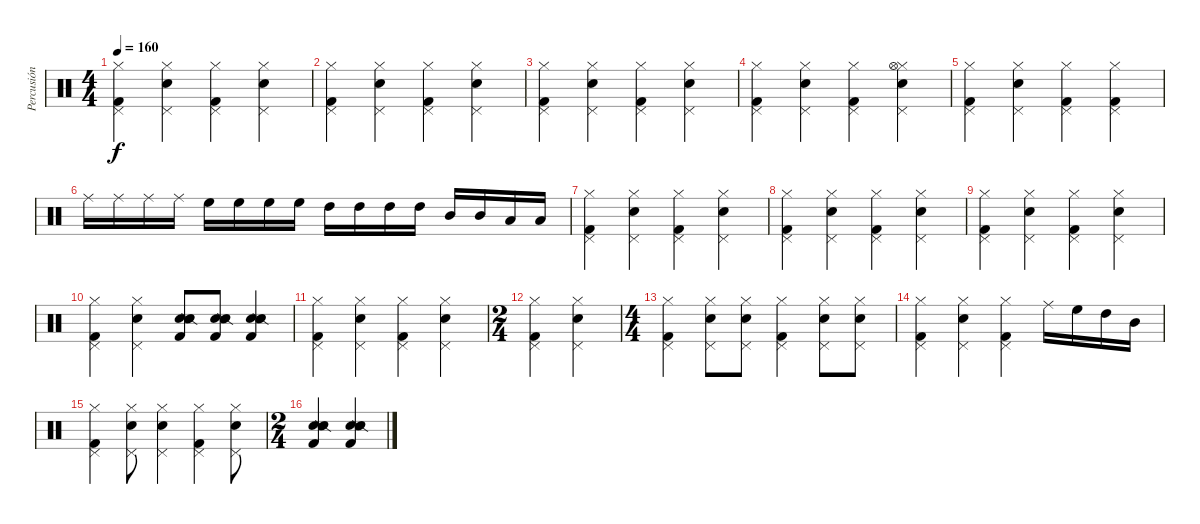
\track ("Percusión" "Percusión") {instrument percussion}
\staff {score}
\articulation defaults
\ts (4 4)
\tempo 160
\clef neutral
\ks c
("Hi-Hat (closed)" "Kick (hit) 2" "Pedal Hi-Hat (hit)").4{dy f} ("Hi-Hat (closed)" "Snare (hit) 2" "Pedal Hi-Hat (hit)").4 ("Hi-Hat (closed)" "Kick (hit) 2" "Pedal Hi-Hat (hit)").4 ("Hi-Hat (closed)" "Snare (hit) 2" "Pedal Hi-Hat (hit)").4 |
("Hi-Hat (closed)" "Kick (hit) 2" "Pedal Hi-Hat (hit)").4 ("Hi-Hat (closed)" "Snare (hit) 2" "Pedal Hi-Hat (hit)").4 ("Hi-Hat (closed)" "Kick (hit) 2" "Pedal Hi-Hat (hit)").4 ("Hi-Hat (closed)" "Snare (hit) 2" "Pedal Hi-Hat (hit)").4 |
("Hi-Hat (closed)" "Kick (hit) 2" "Pedal Hi-Hat (hit)").4 ("Hi-Hat (closed)" "Snare (hit) 2" "Pedal Hi-Hat (hit)").4 ("Hi-Hat (closed)" "Kick (hit) 2" "Pedal Hi-Hat (hit)").4 ("Hi-Hat (closed)" "Snare (hit) 2" "Pedal Hi-Hat (hit)").4 |
("Hi-Hat (closed)" "Kick (hit) 2" "Pedal Hi-Hat (hit)").4 ("Hi-Hat (closed)" "Snare (hit) 2" "Pedal Hi-Hat (hit)").4 ("Hi-Hat (closed)" "Kick (hit) 2" "Pedal Hi-Hat (hit)").4 ("Hi-Hat (closed)" "Snare (hit) 2" "Pedal Hi-Hat (hit)" "Hi-Hat (open)").4 |
("Hi-Hat (closed)" "Kick (hit) 2" "Pedal Hi-Hat (hit)").4 ("Hi-Hat (closed)" "Snare (hit) 2" "Pedal Hi-Hat (hit)").4 ("Hi-Hat (closed)" "Kick (hit) 2" "Pedal Hi-Hat (hit)").4 ("Hi-Hat (closed)" "Kick (hit) 2" "Pedal Hi-Hat (hit)").4 |
"Ride (middle)".16 "Ride (middle)".16 "Ride (middle)".16 "Ride (middle)".16 "High Floor Tom (hit)".16 "High Floor Tom (hit)".16 "High Floor Tom (hit)".16 "High Floor Tom (hit)".16 "High Tom (hit)".16 "High Tom (hit)".16 "High Tom (hit)".16 "High Tom (hit)".16 "Mid Tom (hit)".16 "Mid Tom (hit)".16 "Low Tom (hit)".16 "Low Tom (hit)".16 |
("Hi-Hat (closed)" "Kick (hit) 2" "Pedal Hi-Hat (hit)").4 ("Hi-Hat (closed)" "Snare (hit) 2" "Pedal Hi-Hat (hit)").4 ("Hi-Hat (closed)" "Kick (hit) 2" "Pedal Hi-Hat (hit)").4 ("Hi-Hat (closed)" "Snare (hit) 2" "Pedal Hi-Hat (hit)").4 |
("Hi-Hat (closed)" "Kick (hit) 2" "Pedal Hi-Hat (hit)").4 ("Hi-Hat (closed)" "Snare (hit) 2" "Pedal Hi-Hat (hit)").4 ("Hi-Hat (closed)" "Kick (hit) 2" "Pedal Hi-Hat (hit)").4 ("Hi-Hat (closed)" "Snare (hit) 2" "Pedal Hi-Hat (hit)").4 |
("Hi-Hat (closed)" "Kick (hit) 2" "Pedal Hi-Hat (hit)").4 ("Hi-Hat (closed)" "Snare (hit) 2" "Pedal Hi-Hat (hit)").4 ("Hi-Hat (closed)" "Kick (hit) 2" "Pedal Hi-Hat (hit)").4 ("Hi-Hat (closed)" "Snare (hit) 2" "Pedal Hi-Hat (hit)").4 |
("Hi-Hat (closed)" "Kick (hit) 2" "Pedal Hi-Hat (hit)").4 ("Hi-Hat (closed)" "Snare (hit) 2" "Pedal Hi-Hat (hit)").4 ("Snare (hit) 2" "Kick (hit) 2" "Snare (side stick) 2" "Electric Snare (hit)").8 ("Snare (hit) 2" "Kick (hit) 2" "Snare (side stick) 2" "Electric Snare (hit)").8 ("Snare (hit) 2" "Kick (hit) 2" "Snare (side stick) 2" "Electric Snare (hit)").4 |
("Hi-Hat (closed)" "Kick (hit) 2" "Pedal Hi-Hat (hit)").4 ("Hi-Hat (closed)" "Snare (hit) 2" "Pedal Hi-Hat (hit)").4 ("Hi-Hat (closed)" "Kick (hit) 2" "Pedal Hi-Hat (hit)").4 ("Hi-Hat (closed)" "Snare (hit) 2" "Pedal Hi-Hat (hit)").4 |
\ts (2 4)
("Hi-Hat (closed)" "Kick (hit) 2" "Pedal Hi-Hat (hit)").4 ("Hi-Hat (closed)" "Snare (hit) 2" "Pedal Hi-Hat (hit)").4 |
\ts (4 4)
("Hi-Hat (closed)" "Kick (hit) 2" "Pedal Hi-Hat (hit)").4 ("Hi-Hat (closed)" "Snare (hit) 2" "Pedal Hi-Hat (hit)").8 ("Hi-Hat (closed)" "Snare (hit) 2" "Pedal Hi-Hat (hit)").8 ("Hi-Hat (closed)" "Kick (hit) 2" "Pedal Hi-Hat (hit)").4 ("Hi-Hat (closed)" "Snare (hit) 2" "Pedal Hi-Hat (hit)").8 ("Hi-Hat (closed)" "Snare (hit) 2" "Pedal Hi-Hat (hit)").8 |
("Hi-Hat (closed)" "Kick (hit) 2" "Pedal Hi-Hat (hit)").4 ("Hi-Hat (closed)" "Snare (hit) 2" "Pedal Hi-Hat (hit)").4 ("Hi-Hat (closed)" "Kick (hit) 2" "Pedal Hi-Hat (hit)").4 "Ride (middle)".16 "High Floor Tom (hit)".16 "High Tom (hit)".16 "Mid Tom (hit)".16 |
("Hi-Hat (closed)" "Kick (hit) 2" "Pedal Hi-Hat (hit)").4 ("Hi-Hat (closed)" "Snare (hit) 2" "Pedal Hi-Hat (hit)").8 ("Hi-Hat (closed)" "Snare (hit) 2" "Pedal Hi-Hat (hit)").4 ("Hi-Hat (closed)" "Kick (hit) 2" "Pedal Hi-Hat (hit)").4 ("Hi-Hat (closed)" "Snare (hit) 2" "Pedal Hi-Hat (hit)").8 |
\ts (2 4)
("Snare (hit) 2" "Kick (hit) 2" "Snare (side stick) 2" "Electric Snare (hit)").4 ("Snare (hit) 2" "Kick (hit) 2" "Snare (side stick) 2" "Electric Snare (hit)").4
